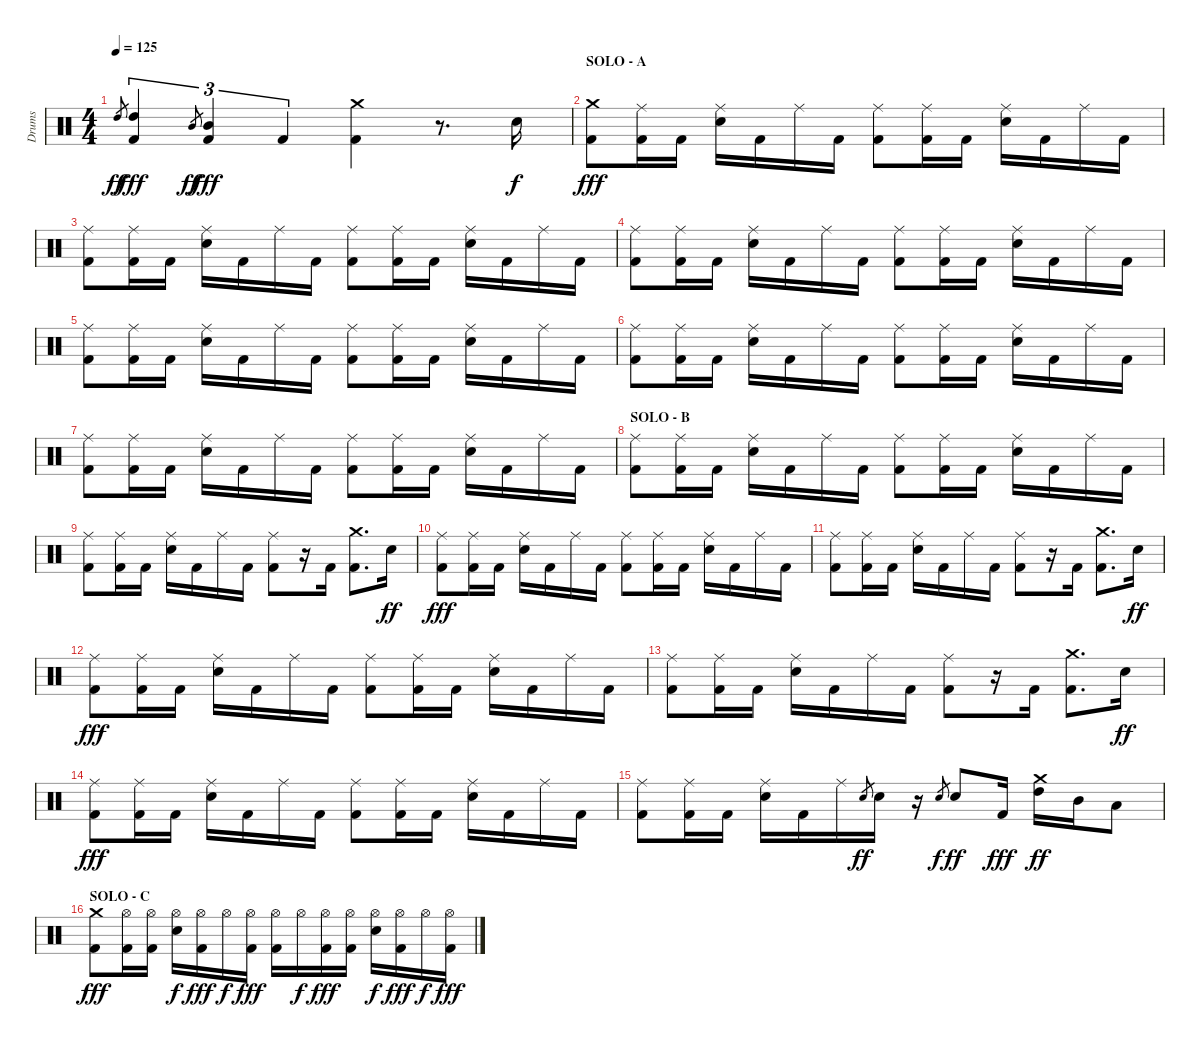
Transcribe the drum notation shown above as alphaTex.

\track ("Drums" "Drums") {instrument percussion}
\staff {score}
\articulation defaults
\ts (4 4)
\tempo 125
\clef neutral
\ks c "High Tom (hit)".8{gr dy ff}
("High Tom (hit)" "Kick (hit) 2").4{tu (3 2) dy fff} "Mid Tom (hit)".8{gr dy ff} ("Mid Tom (hit)" "Kick (hit) 2").4{tu (3 2) dy fff} "Kick (hit) 2".4{tu (3 2)} ("Crash medium (hit)" "Kick (hit) 2").4 r.8{d} "Electric Snare (hit)".16{dy f} |
\section ("" "SOLO - A")
("Crash medium (hit)" "Kick (hit) 2").8{dy fff} ("Ride (middle)" "Kick (hit) 2").16 "Kick (hit) 2".16 ("Ride (middle)" "Electric Snare (hit)").16 "Kick (hit) 2".16 "Ride (middle)".16 "Kick (hit) 2".16 ("Ride (middle)" "Kick (hit) 2").8 ("Ride (middle)" "Kick (hit) 2").16 "Kick (hit) 2".16 ("Ride (middle)" "Electric Snare (hit)").16 "Kick (hit) 2".16 "Ride (middle)".16 "Kick (hit) 2".16 |
("Ride (middle)" "Kick (hit) 2").8 ("Ride (middle)" "Kick (hit) 2").16 "Kick (hit) 2".16 ("Ride (middle)" "Electric Snare (hit)").16 "Kick (hit) 2".16 "Ride (middle)".16 "Kick (hit) 2".16 ("Ride (middle)" "Kick (hit) 2").8 ("Ride (middle)" "Kick (hit) 2").16 "Kick (hit) 2".16 ("Ride (middle)" "Electric Snare (hit)").16 "Kick (hit) 2".16 "Ride (middle)".16 "Kick (hit) 2".16 |
("Ride (middle)" "Kick (hit) 2").8 ("Ride (middle)" "Kick (hit) 2").16 "Kick (hit) 2".16 ("Ride (middle)" "Electric Snare (hit)").16 "Kick (hit) 2".16 "Ride (middle)".16 "Kick (hit) 2".16 ("Ride (middle)" "Kick (hit) 2").8 ("Ride (middle)" "Kick (hit) 2").16 "Kick (hit) 2".16 ("Ride (middle)" "Electric Snare (hit)").16 "Kick (hit) 2".16 "Ride (middle)".16 "Kick (hit) 2".16 |
("Ride (middle)" "Kick (hit) 2").8 ("Ride (middle)" "Kick (hit) 2").16 "Kick (hit) 2".16 ("Ride (middle)" "Electric Snare (hit)").16 "Kick (hit) 2".16 "Ride (middle)".16 "Kick (hit) 2".16 ("Ride (middle)" "Kick (hit) 2").8 ("Ride (middle)" "Kick (hit) 2").16 "Kick (hit) 2".16 ("Ride (middle)" "Electric Snare (hit)").16 "Kick (hit) 2".16 "Ride (middle)".16 "Kick (hit) 2".16 |
("Ride (middle)" "Kick (hit) 2").8 ("Ride (middle)" "Kick (hit) 2").16 "Kick (hit) 2".16 ("Ride (middle)" "Electric Snare (hit)").16 "Kick (hit) 2".16 "Ride (middle)".16 "Kick (hit) 2".16 ("Ride (middle)" "Kick (hit) 2").8 ("Ride (middle)" "Kick (hit) 2").16 "Kick (hit) 2".16 ("Ride (middle)" "Electric Snare (hit)").16 "Kick (hit) 2".16 "Ride (middle)".16 "Kick (hit) 2".16 |
("Ride (middle)" "Kick (hit) 2").8 ("Ride (middle)" "Kick (hit) 2").16 "Kick (hit) 2".16 ("Ride (middle)" "Electric Snare (hit)").16 "Kick (hit) 2".16 "Ride (middle)".16 "Kick (hit) 2".16 ("Ride (middle)" "Kick (hit) 2").8 ("Ride (middle)" "Kick (hit) 2").16 "Kick (hit) 2".16 ("Ride (middle)" "Electric Snare (hit)").16 "Kick (hit) 2".16 "Ride (middle)".16 "Kick (hit) 2".16 |
\section ("" "SOLO - B")
("Ride (middle)" "Kick (hit) 2").8 ("Ride (middle)" "Kick (hit) 2").16 "Kick (hit) 2".16 ("Ride (middle)" "Electric Snare (hit)").16 "Kick (hit) 2".16 "Ride (middle)".16 "Kick (hit) 2".16 ("Ride (middle)" "Kick (hit) 2").8 ("Ride (middle)" "Kick (hit) 2").16 "Kick (hit) 2".16 ("Ride (middle)" "Electric Snare (hit)").16 "Kick (hit) 2".16 "Ride (middle)".16 "Kick (hit) 2".16 |
("Ride (middle)" "Kick (hit) 2").8 ("Ride (middle)" "Kick (hit) 2").16 "Kick (hit) 2".16 ("Ride (middle)" "Electric Snare (hit)").16 "Kick (hit) 2".16 "Ride (middle)".16 "Kick (hit) 2".16 ("Ride (middle)" "Kick (hit) 2").8 r.16 "Kick (hit) 2".16 ("Crash medium (hit)" "Kick (hit) 2").8{d} "Electric Snare (hit)".16{dy ff} |
("Ride (middle)" "Kick (hit) 2").8{dy fff} ("Ride (middle)" "Kick (hit) 2").16 "Kick (hit) 2".16 ("Ride (middle)" "Electric Snare (hit)").16 "Kick (hit) 2".16 "Ride (middle)".16 "Kick (hit) 2".16 ("Ride (middle)" "Kick (hit) 2").8 ("Ride (middle)" "Kick (hit) 2").16 "Kick (hit) 2".16 ("Ride (middle)" "Electric Snare (hit)").16 "Kick (hit) 2".16 "Ride (middle)".16 "Kick (hit) 2".16 |
("Ride (middle)" "Kick (hit) 2").8 ("Ride (middle)" "Kick (hit) 2").16 "Kick (hit) 2".16 ("Ride (middle)" "Electric Snare (hit)").16 "Kick (hit) 2".16 "Ride (middle)".16 "Kick (hit) 2".16 ("Ride (middle)" "Kick (hit) 2").8 r.16 "Kick (hit) 2".16 ("Crash medium (hit)" "Kick (hit) 2").8{d} "Electric Snare (hit)".16{dy ff} |
("Ride (middle)" "Kick (hit) 2").8{dy fff} ("Ride (middle)" "Kick (hit) 2").16 "Kick (hit) 2".16 ("Ride (middle)" "Electric Snare (hit)").16 "Kick (hit) 2".16 "Ride (middle)".16 "Kick (hit) 2".16 ("Ride (middle)" "Kick (hit) 2").8 ("Ride (middle)" "Kick (hit) 2").16 "Kick (hit) 2".16 ("Ride (middle)" "Electric Snare (hit)").16 "Kick (hit) 2".16 "Ride (middle)".16 "Kick (hit) 2".16 |
("Ride (middle)" "Kick (hit) 2").8 ("Ride (middle)" "Kick (hit) 2").16 "Kick (hit) 2".16 ("Ride (middle)" "Electric Snare (hit)").16 "Kick (hit) 2".16 "Ride (middle)".16 "Kick (hit) 2".16 ("Ride (middle)" "Kick (hit) 2").8 r.16 "Kick (hit) 2".16 ("Crash medium (hit)" "Kick (hit) 2").8{d} "Electric Snare (hit)".16{dy ff} |
("Ride (middle)" "Kick (hit) 2").8{dy fff} ("Ride (middle)" "Kick (hit) 2").16 "Kick (hit) 2".16 ("Ride (middle)" "Electric Snare (hit)").16 "Kick (hit) 2".16 "Ride (middle)".16 "Kick (hit) 2".16 ("Ride (middle)" "Kick (hit) 2").8 ("Ride (middle)" "Kick (hit) 2").16 "Kick (hit) 2".16 ("Ride (middle)" "Electric Snare (hit)").16 "Kick (hit) 2".16 "Ride (middle)".16 "Kick (hit) 2".16 |
("Ride (middle)" "Kick (hit) 2").8 ("Ride (middle)" "Kick (hit) 2").16 "Kick (hit) 2".16 ("Ride (middle)" "Electric Snare (hit)").16 "Kick (hit) 2".16 "Ride (middle)".16 "Electric Snare (hit)".8{gr dy ff} "Electric Snare (hit)".16 r.16 "Electric Snare (hit)".8{gr dy f} "Electric Snare (hit)".8{dy ff} "Kick (hit) 2".16{dy fff} ("Crash medium (hit)" "High Tom (hit)").16{dy ff} "Mid Tom (hit)".16 "Low Tom (hit)".8 |
\section ("" "SOLO - C")
("Crash medium (hit)" "Kick (hit) 2").8{dy fff} ("Hi-Hat (open)" "Kick (hit) 2").16 ("Hi-Hat (open)" "Kick (hit) 2").16 ("Hi-Hat (open)" "Electric Snare (hit)").16{dy f} ("Hi-Hat (open)" "Kick (hit) 2").16{dy fff} "Hi-Hat (open)".16{dy f} ("Hi-Hat (open)" "Kick (hit) 2").16{dy fff} ("Hi-Hat (open)" "Kick (hit) 2").16 "Hi-Hat (open)".16{dy f} ("Hi-Hat (open)" "Kick (hit) 2").16{dy fff} ("Hi-Hat (open)" "Kick (hit) 2").16 ("Hi-Hat (open)" "Electric Snare (hit)").16{dy f} ("Hi-Hat (open)" "Kick (hit) 2").16{dy fff} "Hi-Hat (open)".16{dy f} ("Hi-Hat (open)" "Kick (hit) 2").16{dy fff}
